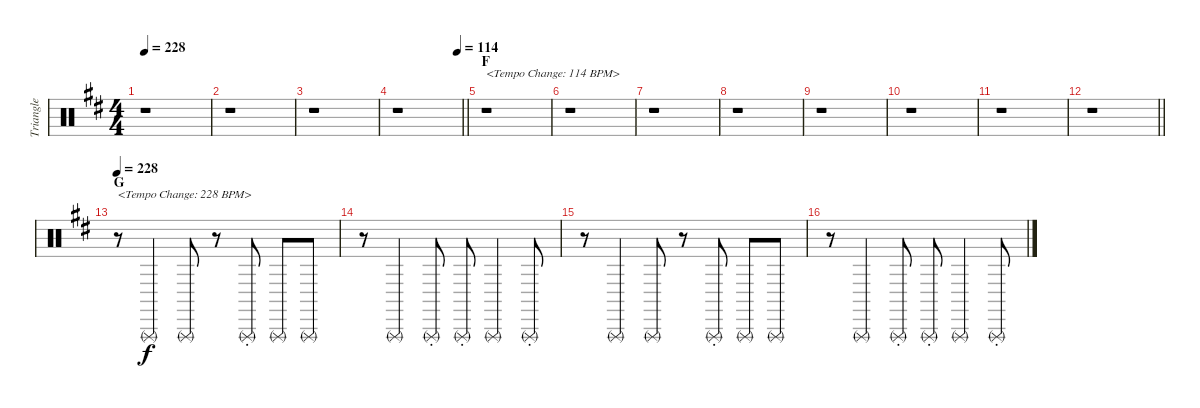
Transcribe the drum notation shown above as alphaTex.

\track ("Triangle" "Triangle") {instrument percussion}
\staff {score}
\articulation defaults
\ts (4 4)
\tempo 228
\clef neutral
\ks d
r.1{dy f} |
r.1 |
r.1 |
\tempo (114 0.9375)
\barLineRight lightlight
r.1 |
\section ("" "F")
r.1{txt "<Tempo Change: 114 BPM>"} |
r.1 |
r.1 |
r.1 |
r.1 |
r.1 |
r.1 |
\barLineRight lightlight
r.1 |
\section ("" "G")
\tempo 228
r.8{txt "<Tempo Change: 228 BPM>"} "Triangle (rnute)".4 "Triangle (rnute)".8 r.8 "Triangle (rnute)"{st}.8 "Triangle (rnute)".8 "Triangle (rnute)".8 |
r.8 "Triangle (rnute)".4 "Triangle (rnute)"{st}.8 "Triangle (rnute)"{st}.8 "Triangle (rnute)".4 "Triangle (rnute)"{st}.8 |
r.8 "Triangle (rnute)".4 "Triangle (rnute)".8 r.8 "Triangle (rnute)"{st}.8 "Triangle (rnute)".8 "Triangle (rnute)".8 |
r.8 "Triangle (rnute)".4 "Triangle (rnute)"{st}.8 "Triangle (rnute)"{st}.8 "Triangle (rnute)".4 "Triangle (rnute)"{st}.8
